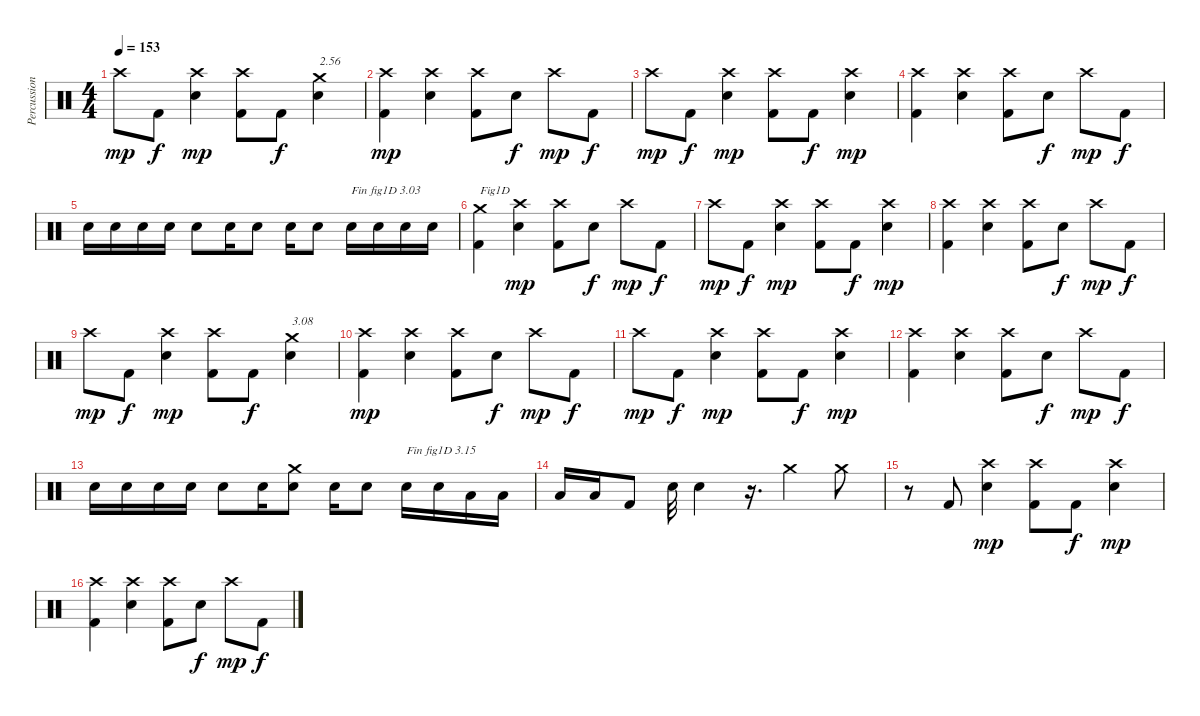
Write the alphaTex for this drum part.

\track ("Percussions" "Percussion") {instrument percussion}
\staff {score}
\articulation defaults
\ts (4 4)
\tempo 153
\clef neutral
\ks c "Crash high (hit)".8{dy mp} "Kick (hit) 2".8{dy f}
("Electric Snare (hit)" "Crash high (hit)").4{dy mp} ("Kick (hit) 2" "Crash high (hit)").8 "Kick (hit) 2".8{dy f} ("Electric Snare (hit)" "Crash medium (hit)").4{txt "2.56"} |
("Kick (hit) 2" "Crash high (hit)").4{dy mp} ("Electric Snare (hit)" "Crash high (hit)").4 ("Kick (hit) 2" "Crash high (hit)").8 "Electric Snare (hit)".8{dy f} "Crash high (hit)".8{dy mp} "Kick (hit) 2".8{dy f} |
"Crash high (hit)".8{dy mp} "Kick (hit) 2".8{dy f} ("Electric Snare (hit)" "Crash high (hit)").4{dy mp} ("Kick (hit) 2" "Crash high (hit)").8 "Kick (hit) 2".8{dy f} ("Electric Snare (hit)" "Crash high (hit)").4{dy mp} |
("Kick (hit) 2" "Crash high (hit)").4 ("Electric Snare (hit)" "Crash high (hit)").4 ("Kick (hit) 2" "Crash high (hit)").8 "Electric Snare (hit)".8{dy f} "Crash high (hit)".8{dy mp} "Kick (hit) 2".8{dy f} |
"Electric Snare (hit)".16 "Electric Snare (hit)".16 "Electric Snare (hit)".16 "Electric Snare (hit)".16 "Electric Snare (hit)".8 "Electric Snare (hit)".16 "Electric Snare (hit)".8 "Electric Snare (hit)".16 "Electric Snare (hit)".8 "Electric Snare (hit)".16{txt "Fin fig1D 3.03"} "Electric Snare (hit)".16 "Electric Snare (hit)".16 "Electric Snare (hit)".16 |
("Kick (hit) 2" "Crash medium (hit)").4{txt "Fig1D"} ("Electric Snare (hit)" "Crash high (hit)").4{dy mp} ("Kick (hit) 2" "Crash high (hit)").8 "Electric Snare (hit)".8{dy f} "Crash high (hit)".8{dy mp} "Kick (hit) 2".8{dy f} |
"Crash high (hit)".8{dy mp} "Kick (hit) 2".8{dy f} ("Electric Snare (hit)" "Crash high (hit)").4{dy mp} ("Kick (hit) 2" "Crash high (hit)").8 "Kick (hit) 2".8{dy f} ("Electric Snare (hit)" "Crash high (hit)").4{dy mp} |
("Kick (hit) 2" "Crash high (hit)").4 ("Electric Snare (hit)" "Crash high (hit)").4 ("Kick (hit) 2" "Crash high (hit)").8 "Electric Snare (hit)".8{dy f} "Crash high (hit)".8{dy mp} "Kick (hit) 2".8{dy f} |
"Crash high (hit)".8{dy mp} "Kick (hit) 2".8{dy f} ("Electric Snare (hit)" "Crash high (hit)").4{dy mp} ("Kick (hit) 2" "Crash high (hit)").8 "Kick (hit) 2".8{dy f} ("Electric Snare (hit)" "Crash medium (hit)").4{txt "3.08"} |
("Kick (hit) 2" "Crash high (hit)").4{dy mp} ("Electric Snare (hit)" "Crash high (hit)").4 ("Kick (hit) 2" "Crash high (hit)").8 "Electric Snare (hit)".8{dy f} "Crash high (hit)".8{dy mp} "Kick (hit) 2".8{dy f} |
"Crash high (hit)".8{dy mp} "Kick (hit) 2".8{dy f} ("Electric Snare (hit)" "Crash high (hit)").4{dy mp} ("Kick (hit) 2" "Crash high (hit)").8 "Kick (hit) 2".8{dy f} ("Electric Snare (hit)" "Crash high (hit)").4{dy mp} |
("Kick (hit) 2" "Crash high (hit)").4 ("Electric Snare (hit)" "Crash high (hit)").4 ("Kick (hit) 2" "Crash high (hit)").8 "Electric Snare (hit)".8{dy f} "Crash high (hit)".8{dy mp} "Kick (hit) 2".8{dy f} |
"Electric Snare (hit)".16 "Electric Snare (hit)".16 "Electric Snare (hit)".16 "Electric Snare (hit)".16 "Electric Snare (hit)".8 "Electric Snare (hit)".16 ("Electric Snare (hit)" "Crash medium (hit)").8 "Electric Snare (hit)".16 "Electric Snare (hit)".8 "Electric Snare (hit)".16{txt "Fin fig1D 3.15"} "Electric Snare (hit)".16 "Low Floor Tom (hit)".16 "Low Floor Tom (hit)".16 |
"Low Floor Tom (hit)".16 "Low Floor Tom (hit)".16 "Kick (hit) 2".8 "Electric Snare (hit)".32 "Electric Snare (hit)".4 r.16{d} "Crash medium (hit)".4 "Crash medium (hit)".8 |
r.8 "Kick (hit) 2".8 ("Electric Snare (hit)" "Crash high (hit)").4{dy mp} ("Kick (hit) 2" "Crash high (hit)").8 "Kick (hit) 2".8{dy f} ("Electric Snare (hit)" "Crash high (hit)").4{dy mp} |
("Kick (hit) 2" "Crash high (hit)").4 ("Electric Snare (hit)" "Crash high (hit)").4 ("Kick (hit) 2" "Crash high (hit)").8 "Electric Snare (hit)".8{dy f} "Crash high (hit)".8{dy mp} "Kick (hit) 2".8{dy f}
